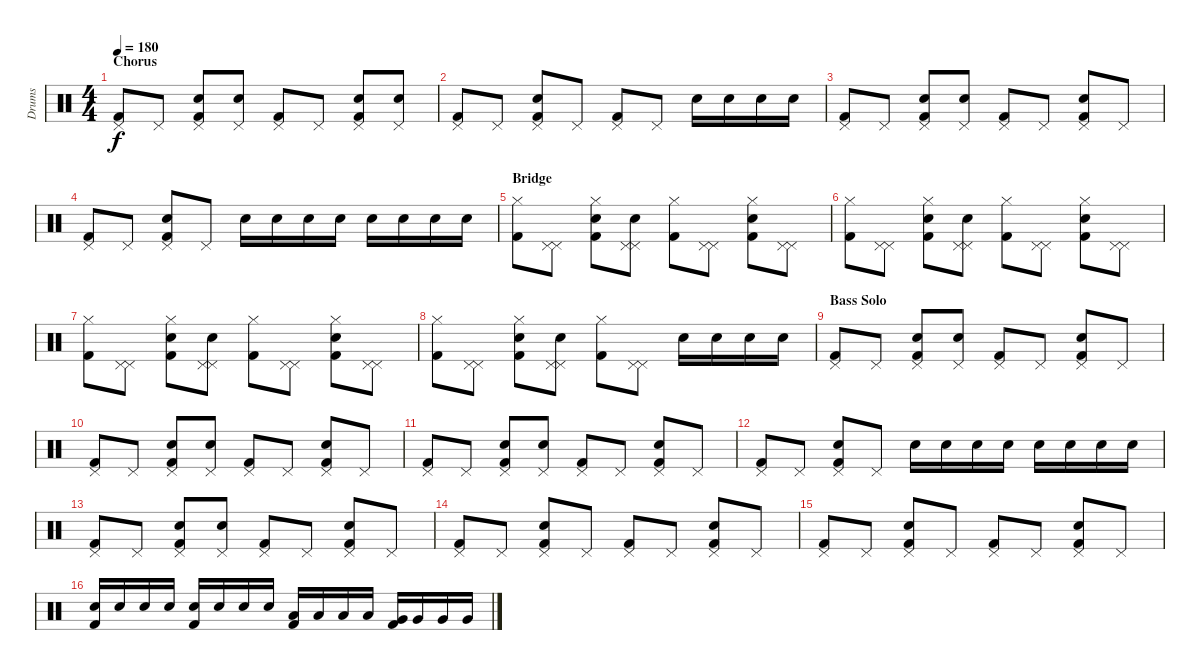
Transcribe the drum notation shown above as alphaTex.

\track ("Drums" "Drums") {instrument percussion}
\staff {score}
\articulation defaults
\ts (4 4)
\section ("" "Chorus")
\tempo 180
\clef neutral
\ks c
("Pedal Hi-Hat (hit)" "Kick (hit) 2").8{dy f} "Pedal Hi-Hat (hit)".8 ("Pedal Hi-Hat (hit)" "Kick (hit) 2" "Electric Snare (hit)").8 ("Pedal Hi-Hat (hit)" "Electric Snare (hit)").8 ("Pedal Hi-Hat (hit)" "Kick (hit) 2").8 "Pedal Hi-Hat (hit)".8 ("Pedal Hi-Hat (hit)" "Kick (hit) 2" "Electric Snare (hit)").8 ("Pedal Hi-Hat (hit)" "Electric Snare (hit)").8 |
("Pedal Hi-Hat (hit)" "Kick (hit) 2").8 "Pedal Hi-Hat (hit)".8 ("Pedal Hi-Hat (hit)" "Kick (hit) 2" "Electric Snare (hit)").8 "Pedal Hi-Hat (hit)".8 ("Pedal Hi-Hat (hit)" "Kick (hit) 2").8 "Pedal Hi-Hat (hit)".8 "Electric Snare (hit)".16 "Electric Snare (hit)".16 "Electric Snare (hit)".16 "Electric Snare (hit)".16 |
("Pedal Hi-Hat (hit)" "Kick (hit) 2").8 "Pedal Hi-Hat (hit)".8 ("Pedal Hi-Hat (hit)" "Kick (hit) 2" "Electric Snare (hit)").8 ("Pedal Hi-Hat (hit)" "Electric Snare (hit)").8 ("Pedal Hi-Hat (hit)" "Kick (hit) 2").8 "Pedal Hi-Hat (hit)".8 ("Pedal Hi-Hat (hit)" "Kick (hit) 2" "Electric Snare (hit)").8 "Pedal Hi-Hat (hit)".8 |
("Pedal Hi-Hat (hit)" "Kick (hit) 2").8 "Pedal Hi-Hat (hit)".8 ("Pedal Hi-Hat (hit)" "Kick (hit) 2" "Electric Snare (hit)").8 "Pedal Hi-Hat (hit)".8 "Electric Snare (hit)".16 "Electric Snare (hit)".16 "Electric Snare (hit)".16 "Electric Snare (hit)".16 "Electric Snare (hit)".16 "Electric Snare (hit)".16 "Electric Snare (hit)".16 "Electric Snare (hit)".16 |
\section ("" "Bridge")
("Hi-Hat (closed)" "Kick (hit) 2").8 ("Pedal Hi-Hat (hit)" "Pedal Hi-Hat (hit)").8 ("Hi-Hat (closed)" "Kick (hit) 2" "Electric Snare (hit)").8 ("Pedal Hi-Hat (hit)" "Electric Snare (hit)" "Pedal Hi-Hat (hit)").8 ("Hi-Hat (closed)" "Kick (hit) 2").8 ("Pedal Hi-Hat (hit)" "Pedal Hi-Hat (hit)").8 ("Hi-Hat (closed)" "Kick (hit) 2" "Electric Snare (hit)").8 ("Pedal Hi-Hat (hit)" "Pedal Hi-Hat (hit)").8 |
("Hi-Hat (closed)" "Kick (hit) 2").8 ("Pedal Hi-Hat (hit)" "Pedal Hi-Hat (hit)").8 ("Hi-Hat (closed)" "Kick (hit) 2" "Electric Snare (hit)").8 ("Pedal Hi-Hat (hit)" "Electric Snare (hit)" "Pedal Hi-Hat (hit)").8 ("Hi-Hat (closed)" "Kick (hit) 2").8 ("Pedal Hi-Hat (hit)" "Pedal Hi-Hat (hit)").8 ("Hi-Hat (closed)" "Kick (hit) 2" "Electric Snare (hit)").8 ("Pedal Hi-Hat (hit)" "Pedal Hi-Hat (hit)").8 |
("Hi-Hat (closed)" "Kick (hit) 2").8 ("Pedal Hi-Hat (hit)" "Pedal Hi-Hat (hit)").8 ("Hi-Hat (closed)" "Kick (hit) 2" "Electric Snare (hit)").8 ("Pedal Hi-Hat (hit)" "Electric Snare (hit)" "Pedal Hi-Hat (hit)").8 ("Hi-Hat (closed)" "Kick (hit) 2").8 ("Pedal Hi-Hat (hit)" "Pedal Hi-Hat (hit)").8 ("Hi-Hat (closed)" "Kick (hit) 2" "Electric Snare (hit)").8 ("Pedal Hi-Hat (hit)" "Pedal Hi-Hat (hit)").8 |
("Hi-Hat (closed)" "Kick (hit) 2").8 ("Pedal Hi-Hat (hit)" "Pedal Hi-Hat (hit)").8 ("Hi-Hat (closed)" "Kick (hit) 2" "Electric Snare (hit)").8 ("Pedal Hi-Hat (hit)" "Electric Snare (hit)" "Pedal Hi-Hat (hit)").8 ("Hi-Hat (closed)" "Kick (hit) 2").8 ("Pedal Hi-Hat (hit)" "Pedal Hi-Hat (hit)").8 "Electric Snare (hit)".16 "Electric Snare (hit)".16 "Electric Snare (hit)".16 "Electric Snare (hit)".16 |
\section ("" "Bass Solo")
("Pedal Hi-Hat (hit)" "Kick (hit) 2").8 "Pedal Hi-Hat (hit)".8 ("Pedal Hi-Hat (hit)" "Kick (hit) 2" "Electric Snare (hit)").8 ("Pedal Hi-Hat (hit)" "Electric Snare (hit)").8 ("Pedal Hi-Hat (hit)" "Kick (hit) 2").8 "Pedal Hi-Hat (hit)".8 ("Pedal Hi-Hat (hit)" "Kick (hit) 2" "Electric Snare (hit)").8 "Pedal Hi-Hat (hit)".8 |
("Pedal Hi-Hat (hit)" "Kick (hit) 2").8 "Pedal Hi-Hat (hit)".8 ("Pedal Hi-Hat (hit)" "Kick (hit) 2" "Electric Snare (hit)").8 ("Pedal Hi-Hat (hit)" "Electric Snare (hit)").8 ("Pedal Hi-Hat (hit)" "Kick (hit) 2").8 "Pedal Hi-Hat (hit)".8 ("Pedal Hi-Hat (hit)" "Kick (hit) 2" "Electric Snare (hit)").8 "Pedal Hi-Hat (hit)".8 |
("Pedal Hi-Hat (hit)" "Kick (hit) 2").8 "Pedal Hi-Hat (hit)".8 ("Pedal Hi-Hat (hit)" "Kick (hit) 2" "Electric Snare (hit)").8 ("Pedal Hi-Hat (hit)" "Electric Snare (hit)").8 ("Pedal Hi-Hat (hit)" "Kick (hit) 2").8 "Pedal Hi-Hat (hit)".8 ("Pedal Hi-Hat (hit)" "Kick (hit) 2" "Electric Snare (hit)").8 "Pedal Hi-Hat (hit)".8 |
("Pedal Hi-Hat (hit)" "Kick (hit) 2").8 "Pedal Hi-Hat (hit)".8 ("Pedal Hi-Hat (hit)" "Kick (hit) 2" "Electric Snare (hit)").8 "Pedal Hi-Hat (hit)".8 "Electric Snare (hit)".16 "Electric Snare (hit)".16 "Electric Snare (hit)".16 "Electric Snare (hit)".16 "Electric Snare (hit)".16 "Electric Snare (hit)".16 "Electric Snare (hit)".16 "Electric Snare (hit)".16 |
("Pedal Hi-Hat (hit)" "Kick (hit) 2").8 "Pedal Hi-Hat (hit)".8 ("Pedal Hi-Hat (hit)" "Kick (hit) 2" "Electric Snare (hit)").8 ("Pedal Hi-Hat (hit)" "Electric Snare (hit)").8 ("Pedal Hi-Hat (hit)" "Kick (hit) 2").8 "Pedal Hi-Hat (hit)".8 ("Pedal Hi-Hat (hit)" "Kick (hit) 2" "Electric Snare (hit)").8 "Pedal Hi-Hat (hit)".8 |
("Pedal Hi-Hat (hit)" "Kick (hit) 2").8 "Pedal Hi-Hat (hit)".8 ("Pedal Hi-Hat (hit)" "Kick (hit) 2" "Electric Snare (hit)").8 "Pedal Hi-Hat (hit)".8 ("Pedal Hi-Hat (hit)" "Kick (hit) 2").8 "Pedal Hi-Hat (hit)".8 ("Pedal Hi-Hat (hit)" "Kick (hit) 2" "Electric Snare (hit)").8 "Pedal Hi-Hat (hit)".8 |
("Pedal Hi-Hat (hit)" "Kick (hit) 2").8 "Pedal Hi-Hat (hit)".8 ("Pedal Hi-Hat (hit)" "Kick (hit) 2" "Electric Snare (hit)").8 "Pedal Hi-Hat (hit)".8 ("Pedal Hi-Hat (hit)" "Kick (hit) 2").8 "Pedal Hi-Hat (hit)".8 ("Pedal Hi-Hat (hit)" "Kick (hit) 2" "Electric Snare (hit)").8 "Pedal Hi-Hat (hit)".8 |
("Kick (hit) 2" "Electric Snare (hit)").16 "Electric Snare (hit)".16 "Electric Snare (hit)".16 "Electric Snare (hit)".16 ("Kick (hit) 2" "Electric Snare (hit)").16 "Electric Snare (hit)".16 "Electric Snare (hit)".16 "Electric Snare (hit)".16 ("Kick (hit) 2" "Low Floor Tom (hit)").16 "Low Floor Tom (hit)".16 "Low Floor Tom (hit)".16 "Low Floor Tom (hit)".16 ("Kick (hit) 2" "Very Low Tom (hit)").16 "Very Low Tom (hit)".16 "Very Low Tom (hit)".16 "Very Low Tom (hit)".16
